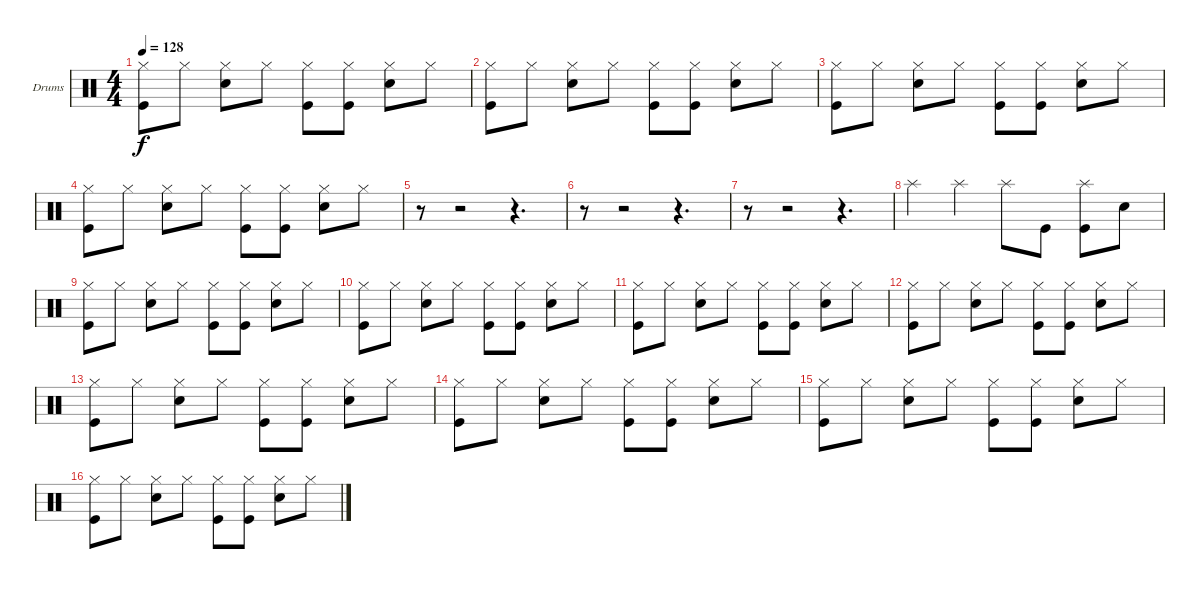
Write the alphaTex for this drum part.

\bracketExtendMode groupsimilarinstruments
\firstSystemTrackNameOrientation horizontal
\otherSystemsTrackNameOrientation horizontal
\track ("Drumkit" "Drums") {instrument percussion}
\staff {score}
\articulation defaults
\ts (4 4)
\tempo 128
\clef neutral
\ks c
("Hi-Hat (closed)" "Kick (hit)").8{dy f} "Hi-Hat (closed)".8 ("Hi-Hat (closed)" "Snare (hit) 2").8 "Hi-Hat (closed)".8 ("Hi-Hat (closed)" "Kick (hit)").8 ("Hi-Hat (closed)" "Kick (hit)").8 ("Hi-Hat (closed)" "Snare (hit) 2").8 "Hi-Hat (closed)".8 |
("Hi-Hat (closed)" "Kick (hit)").8 "Hi-Hat (closed)".8 ("Hi-Hat (closed)" "Snare (hit) 2").8 "Hi-Hat (closed)".8 ("Hi-Hat (closed)" "Kick (hit)").8 ("Hi-Hat (closed)" "Kick (hit)").8 ("Hi-Hat (closed)" "Snare (hit) 2").8 "Hi-Hat (closed)".8 |
("Hi-Hat (closed)" "Kick (hit)").8 "Hi-Hat (closed)".8 ("Hi-Hat (closed)" "Snare (hit) 2").8 "Hi-Hat (closed)".8 ("Hi-Hat (closed)" "Kick (hit)").8 ("Hi-Hat (closed)" "Kick (hit)").8 ("Hi-Hat (closed)" "Snare (hit) 2").8 "Hi-Hat (closed)".8 |
("Hi-Hat (closed)" "Kick (hit)").8 "Hi-Hat (closed)".8 ("Hi-Hat (closed)" "Snare (hit) 2").8 "Hi-Hat (closed)".8 ("Hi-Hat (closed)" "Kick (hit)").8 ("Hi-Hat (closed)" "Kick (hit)").8 ("Hi-Hat (closed)" "Snare (hit) 2").8 "Hi-Hat (closed)".8 |
r.8 r.2 r.4{d} |
r.8 r.2 r.4{d} |
r.8 r.2 r.4{d} |
"Splash (hit)".4 "Splash (hit)".4 "Splash (hit)".8 "Kick (hit)".8 ("Splash (hit)" "Kick (hit)").8 "Snare (hit) 2".8 |
("Hi-Hat (closed)" "Kick (hit)").8 "Hi-Hat (closed)".8 ("Hi-Hat (closed)" "Snare (hit) 2").8 "Hi-Hat (closed)".8 ("Hi-Hat (closed)" "Kick (hit)").8 ("Hi-Hat (closed)" "Kick (hit)").8 ("Hi-Hat (closed)" "Snare (hit) 2").8 "Hi-Hat (closed)".8 |
("Hi-Hat (closed)" "Kick (hit)").8 "Hi-Hat (closed)".8 ("Hi-Hat (closed)" "Snare (hit) 2").8 "Hi-Hat (closed)".8 ("Hi-Hat (closed)" "Kick (hit)").8 ("Hi-Hat (closed)" "Kick (hit)").8 ("Hi-Hat (closed)" "Snare (hit) 2").8 "Hi-Hat (closed)".8 |
("Hi-Hat (closed)" "Kick (hit)").8 "Hi-Hat (closed)".8 ("Hi-Hat (closed)" "Snare (hit) 2").8 "Hi-Hat (closed)".8 ("Hi-Hat (closed)" "Kick (hit)").8 ("Hi-Hat (closed)" "Kick (hit)").8 ("Hi-Hat (closed)" "Snare (hit) 2").8 "Hi-Hat (closed)".8 |
("Hi-Hat (closed)" "Kick (hit)").8 "Hi-Hat (closed)".8 ("Hi-Hat (closed)" "Snare (hit) 2").8 "Hi-Hat (closed)".8 ("Hi-Hat (closed)" "Kick (hit)").8 ("Hi-Hat (closed)" "Kick (hit)").8 ("Hi-Hat (closed)" "Snare (hit) 2").8 "Hi-Hat (closed)".8 |
("Hi-Hat (closed)" "Kick (hit)").8 "Hi-Hat (closed)".8 ("Hi-Hat (closed)" "Snare (hit) 2").8 "Hi-Hat (closed)".8 ("Hi-Hat (closed)" "Kick (hit)").8 ("Hi-Hat (closed)" "Kick (hit)").8 ("Hi-Hat (closed)" "Snare (hit) 2").8 "Hi-Hat (closed)".8 |
("Hi-Hat (closed)" "Kick (hit)").8 "Hi-Hat (closed)".8 ("Hi-Hat (closed)" "Snare (hit) 2").8 "Hi-Hat (closed)".8 ("Hi-Hat (closed)" "Kick (hit)").8 ("Hi-Hat (closed)" "Kick (hit)").8 ("Hi-Hat (closed)" "Snare (hit) 2").8 "Hi-Hat (closed)".8 |
("Hi-Hat (closed)" "Kick (hit)").8 "Hi-Hat (closed)".8 ("Hi-Hat (closed)" "Snare (hit) 2").8 "Hi-Hat (closed)".8 ("Hi-Hat (closed)" "Kick (hit)").8 ("Hi-Hat (closed)" "Kick (hit)").8 ("Hi-Hat (closed)" "Snare (hit) 2").8 "Hi-Hat (closed)".8 |
("Hi-Hat (closed)" "Kick (hit)").8 "Hi-Hat (closed)".8 ("Hi-Hat (closed)" "Snare (hit) 2").8 "Hi-Hat (closed)".8 ("Hi-Hat (closed)" "Kick (hit)").8 ("Hi-Hat (closed)" "Kick (hit)").8 ("Hi-Hat (closed)" "Snare (hit) 2").8 "Hi-Hat (closed)".8
